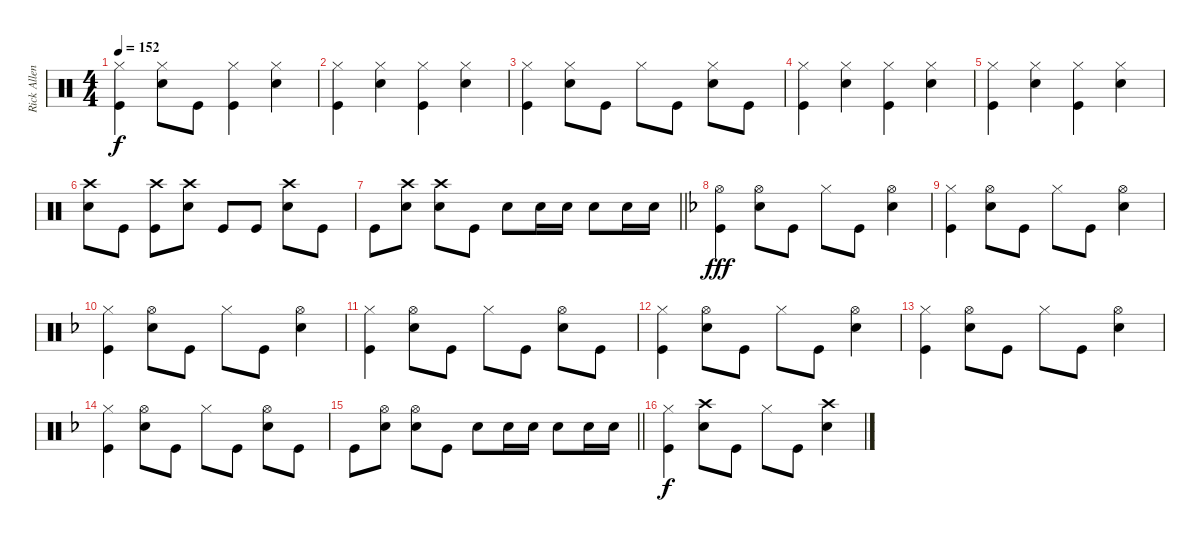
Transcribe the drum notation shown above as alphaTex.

\track ("Rick Allen" "Rick Allen") {instrument percussion}
\staff {score}
\articulation defaults
\ts (4 4)
\tempo 152
\clef neutral
\ks aminor
("Hi-Hat (closed)" "Kick (hit)").4{dy f} ("Hi-Hat (closed)" "Snare (hit) 2").8 "Kick (hit)".8 ("Hi-Hat (closed)" "Kick (hit)").4 ("Hi-Hat (closed)" "Snare (hit) 2").4 |
("Hi-Hat (closed)" "Kick (hit)").4 ("Hi-Hat (closed)" "Snare (hit) 2").4 ("Hi-Hat (closed)" "Kick (hit)").4 ("Hi-Hat (closed)" "Snare (hit) 2").4 |
("Hi-Hat (closed)" "Kick (hit)").4 ("Hi-Hat (closed)" "Snare (hit) 2").8 "Kick (hit)".8 "Hi-Hat (closed)".8 "Kick (hit)".8 ("Hi-Hat (closed)" "Snare (hit) 2").8 "Kick (hit)".8 |
("Hi-Hat (closed)" "Kick (hit)").4 ("Hi-Hat (closed)" "Snare (hit) 2").4 ("Hi-Hat (closed)" "Kick (hit)").4 ("Hi-Hat (closed)" "Snare (hit) 2").4 |
("Hi-Hat (closed)" "Kick (hit)").4 ("Hi-Hat (closed)" "Snare (hit) 2").4 ("Hi-Hat (closed)" "Kick (hit)").4 ("Hi-Hat (closed)" "Snare (hit) 2").4 |
("Crash high (hit)" "Snare (hit) 2").8 "Kick (hit)".8 ("Crash high (hit)" "Kick (hit)").8 ("Crash high (hit)" "Snare (hit) 2").8 "Kick (hit)".8 "Kick (hit)".8 ("Crash high (hit)" "Snare (hit) 2").8 "Kick (hit)".8 |
\barLineRight lightlight "Kick (hit)".8
("Crash high (hit)" "Snare (hit) 2").8 ("Crash high (hit)" "Snare (hit) 2").8 "Kick (hit)".8 "Snare (hit) 2".8 "Snare (hit) 2".16 "Snare (hit) 2".16 "Snare (hit) 2".8 "Snare (hit) 2".16 "Snare (hit) 2".16 |
\ks dminor
("Hi-Hat (open)" "Kick (hit)").4{dy fff} ("Hi-Hat (open)" "Snare (hit) 2").8 "Kick (hit)".8 "Hi-Hat (closed)".8 "Kick (hit)".8 ("Hi-Hat (open)" "Snare (hit) 2").4 |
("Hi-Hat (closed)" "Kick (hit)").4 ("Hi-Hat (open)" "Snare (hit) 2").8 "Kick (hit)".8 "Hi-Hat (closed)".8 "Kick (hit)".8 ("Hi-Hat (open)" "Snare (hit) 2").4 |
("Hi-Hat (closed)" "Kick (hit)").4 ("Hi-Hat (open)" "Snare (hit) 2").8 "Kick (hit)".8 "Hi-Hat (closed)".8 "Kick (hit)".8 ("Hi-Hat (open)" "Snare (hit) 2").4 |
("Hi-Hat (closed)" "Kick (hit)").4 ("Hi-Hat (open)" "Snare (hit) 2").8 "Kick (hit)".8 "Hi-Hat (closed)".8 "Kick (hit)".8 ("Hi-Hat (open)" "Snare (hit) 2").8 "Kick (hit)".8 |
("Hi-Hat (closed)" "Kick (hit)").4 ("Hi-Hat (open)" "Snare (hit) 2").8 "Kick (hit)".8 "Hi-Hat (closed)".8 "Kick (hit)".8 ("Hi-Hat (open)" "Snare (hit) 2").4 |
("Hi-Hat (closed)" "Kick (hit)").4 ("Hi-Hat (open)" "Snare (hit) 2").8 "Kick (hit)".8 "Hi-Hat (closed)".8 "Kick (hit)".8 ("Hi-Hat (open)" "Snare (hit) 2").4 |
("Hi-Hat (closed)" "Kick (hit)").4 ("Hi-Hat (open)" "Snare (hit) 2").8 "Kick (hit)".8 "Hi-Hat (closed)".8 "Kick (hit)".8 ("Hi-Hat (open)" "Snare (hit) 2").8 "Kick (hit)".8 |
\barLineRight lightlight "Kick (hit)".8
("Hi-Hat (open)" "Snare (hit) 2").8 ("Hi-Hat (open)" "Snare (hit) 2").8 "Kick (hit)".8 "Snare (hit) 2".8 "Snare (hit) 2".16 "Snare (hit) 2".16 "Snare (hit) 2".8 "Snare (hit) 2".16 "Snare (hit) 2".16 |
("Hi-Hat (closed)" "Kick (hit)").4{dy f} ("Crash high (hit)" "Snare (hit) 2").8 "Kick (hit)".8 "Hi-Hat (closed)".8 "Kick (hit)".8 ("Crash high (hit)" "Snare (hit) 2").4
